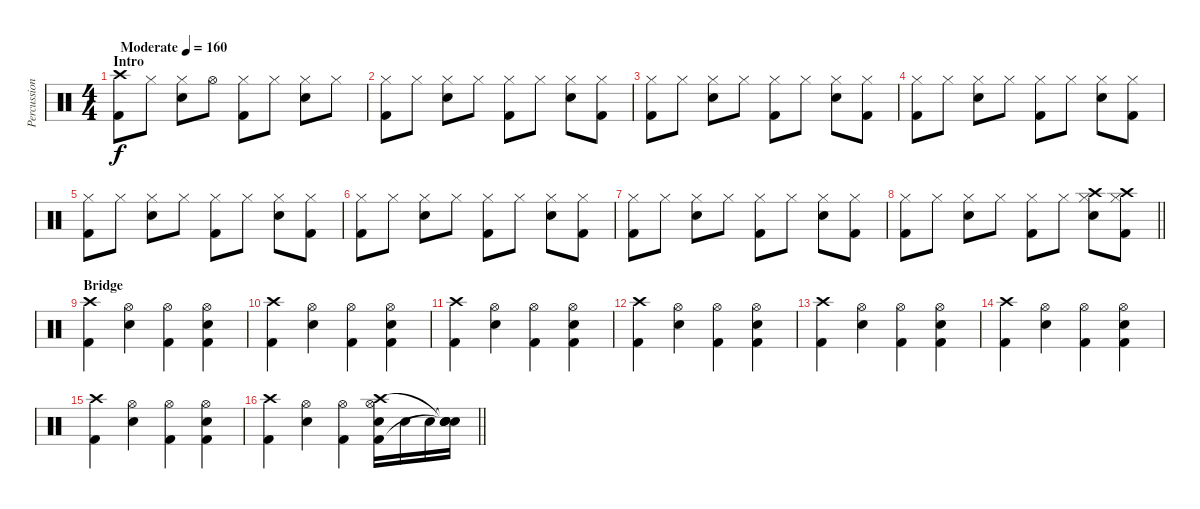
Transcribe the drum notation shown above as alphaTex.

\track ("Percussion" "Percussion") {instrument percussion}
\staff {score}
\articulation defaults
\ts (4 4)
\section ("" "Intro")
\tempo (160 "Moderate")
\clef neutral
\ks c
("Crash high (hit)" "Kick (hit) 2").8{dy f} "Hi-Hat (closed)".8 ("Hi-Hat (closed)" "Snare (hit) 2").8 "Hi-Hat (open)".8 ("Hi-Hat (closed)" "Kick (hit) 2").8 "Hi-Hat (closed)".8 ("Hi-Hat (closed)" "Snare (hit) 2").8 "Hi-Hat (closed)".8 |
("Hi-Hat (closed)" "Kick (hit) 2").8 "Hi-Hat (closed)".8 ("Hi-Hat (closed)" "Snare (hit) 2").8 "Hi-Hat (closed)".8 ("Hi-Hat (closed)" "Kick (hit) 2").8 "Hi-Hat (closed)".8 ("Hi-Hat (closed)" "Snare (hit) 2").8 ("Hi-Hat (closed)" "Kick (hit) 2").8 |
("Hi-Hat (closed)" "Kick (hit) 2").8 "Hi-Hat (closed)".8 ("Hi-Hat (closed)" "Snare (hit) 2").8 "Hi-Hat (closed)".8 ("Hi-Hat (closed)" "Kick (hit) 2").8 "Hi-Hat (closed)".8 ("Hi-Hat (closed)" "Snare (hit) 2").8 ("Hi-Hat (closed)" "Kick (hit) 2").8 |
("Hi-Hat (closed)" "Kick (hit) 2").8 "Hi-Hat (closed)".8 ("Hi-Hat (closed)" "Snare (hit) 2").8 "Hi-Hat (closed)".8 ("Hi-Hat (closed)" "Kick (hit) 2").8 "Hi-Hat (closed)".8 ("Hi-Hat (closed)" "Snare (hit) 2").8 ("Hi-Hat (closed)" "Kick (hit) 2").8 |
("Hi-Hat (closed)" "Kick (hit) 2").8 "Hi-Hat (closed)".8 ("Hi-Hat (closed)" "Snare (hit) 2").8 "Hi-Hat (closed)".8 ("Hi-Hat (closed)" "Kick (hit) 2").8 "Hi-Hat (closed)".8 ("Hi-Hat (closed)" "Snare (hit) 2").8 ("Hi-Hat (closed)" "Kick (hit) 2").8 |
("Hi-Hat (closed)" "Kick (hit) 2").8 "Hi-Hat (closed)".8 ("Hi-Hat (closed)" "Snare (hit) 2").8 "Hi-Hat (closed)".8 ("Hi-Hat (closed)" "Kick (hit) 2").8 "Hi-Hat (closed)".8 ("Hi-Hat (closed)" "Snare (hit) 2").8 ("Hi-Hat (closed)" "Kick (hit) 2").8 |
("Hi-Hat (closed)" "Kick (hit) 2").8 "Hi-Hat (closed)".8 ("Hi-Hat (closed)" "Snare (hit) 2").8 "Hi-Hat (closed)".8 ("Hi-Hat (closed)" "Kick (hit) 2").8 "Hi-Hat (closed)".8 ("Hi-Hat (closed)" "Snare (hit) 2").8 ("Hi-Hat (closed)" "Kick (hit) 2").8 |
\barLineRight lightlight
("Hi-Hat (closed)" "Kick (hit) 2").8 "Hi-Hat (closed)".8 ("Hi-Hat (closed)" "Snare (hit) 2").8 "Hi-Hat (closed)".8 ("Hi-Hat (closed)" "Kick (hit) 2").8 "Hi-Hat (closed)".8 ("Crash high (hit)" "Hi-Hat (closed)" "Snare (hit) 2").8 ("Crash high (hit)" "Hi-Hat (closed)" "Kick (hit) 2").8 |
\section ("" "Bridge")
("Crash high (hit)" "Kick (hit) 2").4 ("Hi-Hat (open)" "Snare (hit) 2").4 ("Hi-Hat (open)" "Kick (hit) 2").4 ("Hi-Hat (open)" "Snare (hit) 2" "Kick (hit) 2").4 |
("Crash high (hit)" "Kick (hit) 2").4 ("Hi-Hat (open)" "Snare (hit) 2").4 ("Hi-Hat (open)" "Kick (hit) 2").4 ("Hi-Hat (open)" "Snare (hit) 2" "Kick (hit) 2").4 |
("Crash high (hit)" "Kick (hit) 2").4 ("Hi-Hat (open)" "Snare (hit) 2").4 ("Hi-Hat (open)" "Kick (hit) 2").4 ("Hi-Hat (open)" "Snare (hit) 2" "Kick (hit) 2").4 |
("Crash high (hit)" "Kick (hit) 2").4 ("Hi-Hat (open)" "Snare (hit) 2").4 ("Hi-Hat (open)" "Kick (hit) 2").4 ("Hi-Hat (open)" "Snare (hit) 2" "Kick (hit) 2").4 |
("Crash high (hit)" "Kick (hit) 2").4 ("Hi-Hat (open)" "Snare (hit) 2").4 ("Hi-Hat (open)" "Kick (hit) 2").4 ("Hi-Hat (open)" "Snare (hit) 2" "Kick (hit) 2").4 |
("Crash high (hit)" "Kick (hit) 2").4 ("Hi-Hat (open)" "Snare (hit) 2").4 ("Hi-Hat (open)" "Kick (hit) 2").4 ("Hi-Hat (open)" "Snare (hit) 2" "Kick (hit) 2").4 |
("Crash high (hit)" "Kick (hit) 2").4 ("Hi-Hat (open)" "Snare (hit) 2").4 ("Hi-Hat (open)" "Kick (hit) 2").4 ("Hi-Hat (open)" "Snare (hit) 2" "Kick (hit) 2").4 |
\barLineRight lightlight
("Crash high (hit)" "Kick (hit) 2").4 ("Hi-Hat (open)" "Snare (hit) 2").4 ("Hi-Hat (open)" "Kick (hit) 2").4 ("Hi-Hat (open)" "Snare (hit) 2" "Kick (hit) 2" "Crash high (hit)").16 "Snare (hit) 2".16 "Snare (hit) 2".16 ("Snare (hit)"{t} "Snare (hit) 2" "Snare (hit)"{t} "Snare (hit)"{t}).16
